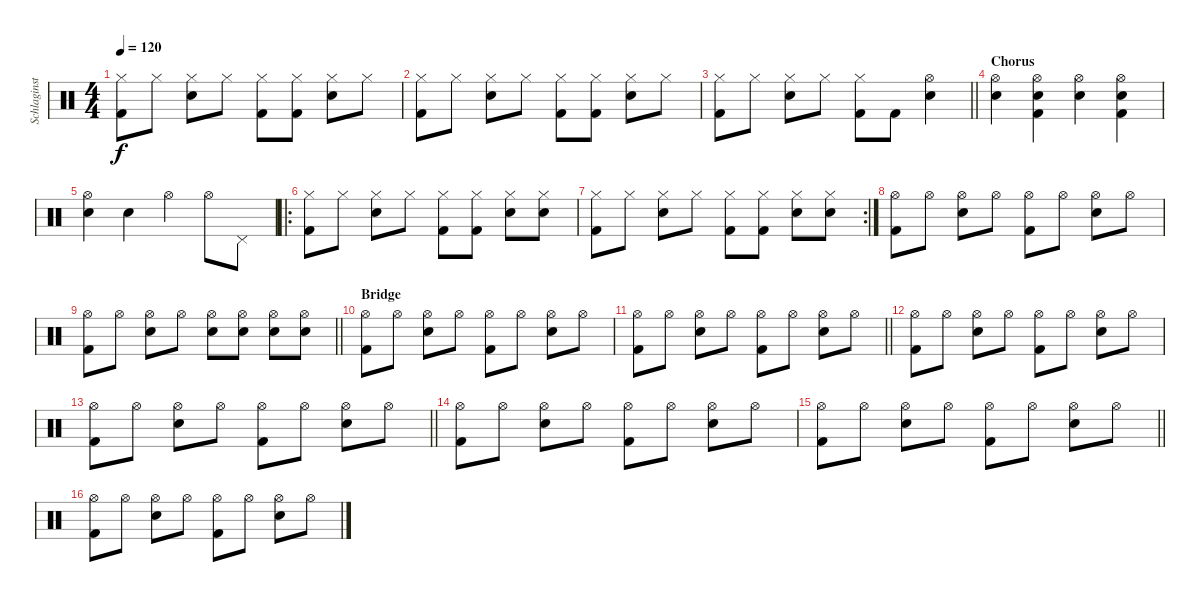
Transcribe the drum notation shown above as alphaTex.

\track ("Schlaginstrumente - Auswahl" "Schlaginst") {instrument percussion}
\staff {score}
\articulation defaults
\ts (4 4)
\tempo 120
\clef neutral
\ks c
("Hi-Hat (closed)" "Kick (hit) 2").8{dy f} "Hi-Hat (closed)".8 ("Hi-Hat (closed)" "Electric Snare (hit)").8 "Hi-Hat (closed)".8 ("Hi-Hat (closed)" "Kick (hit) 2").8 ("Hi-Hat (closed)" "Kick (hit) 2").8 ("Hi-Hat (closed)" "Electric Snare (hit)").8 "Hi-Hat (closed)".8 |
("Hi-Hat (closed)" "Kick (hit) 2").8 "Hi-Hat (closed)".8 ("Hi-Hat (closed)" "Electric Snare (hit)").8 "Hi-Hat (closed)".8 ("Hi-Hat (closed)" "Kick (hit) 2").8 ("Hi-Hat (closed)" "Kick (hit) 2").8 ("Hi-Hat (closed)" "Electric Snare (hit)").8 "Hi-Hat (closed)".8 |
\barLineRight lightlight
("Hi-Hat (closed)" "Kick (hit) 2").8 "Hi-Hat (closed)".8 ("Hi-Hat (closed)" "Electric Snare (hit)").8 "Hi-Hat (closed)".8 ("Hi-Hat (closed)" "Kick (hit) 2").8 "Kick (hit) 2".8 ("Hi-Hat (open)" "Electric Snare (hit)").4 |
\section ("" "Chorus")
("Hi-Hat (open)" "Electric Snare (hit)").4 ("Hi-Hat (open)" "Electric Snare (hit)" "Kick (hit) 2").4 ("Hi-Hat (open)" "Electric Snare (hit)").4 ("Hi-Hat (open)" "Electric Snare (hit)" "Kick (hit) 2").4 |
("Hi-Hat (open)" "Electric Snare (hit)").4 "Electric Snare (hit)".4 "Hi-Hat (open)".4 "Hi-Hat (open)".8 "Pedal Hi-Hat (hit)".8 |
\ro
("Hi-Hat (closed)" "Kick (hit) 2").8 "Hi-Hat (closed)".8 ("Hi-Hat (closed)" "Electric Snare (hit)").8 "Hi-Hat (closed)".8 ("Hi-Hat (closed)" "Kick (hit) 2").8 ("Hi-Hat (closed)" "Kick (hit) 2").8 ("Hi-Hat (closed)" "Electric Snare (hit)").8 ("Hi-Hat (closed)" "Electric Snare (hit)").8 |
\rc 2
("Hi-Hat (closed)" "Kick (hit) 2").8 "Hi-Hat (closed)".8 ("Hi-Hat (closed)" "Electric Snare (hit)").8 "Hi-Hat (closed)".8 ("Hi-Hat (closed)" "Kick (hit) 2").8 ("Hi-Hat (closed)" "Kick (hit) 2").8 ("Hi-Hat (closed)" "Electric Snare (hit)").8 ("Hi-Hat (closed)" "Electric Snare (hit)").8 |
("Hi-Hat (open)" "Kick (hit) 2").8 "Hi-Hat (open)".8 ("Hi-Hat (open)" "Electric Snare (hit)").8 "Hi-Hat (open)".8 ("Hi-Hat (open)" "Kick (hit) 2").8 "Hi-Hat (open)".8 ("Hi-Hat (open)" "Electric Snare (hit)").8 "Hi-Hat (open)".8 |
\barLineRight lightlight
("Hi-Hat (open)" "Kick (hit) 2").8 "Hi-Hat (open)".8 ("Hi-Hat (open)" "Electric Snare (hit)").8 "Hi-Hat (open)".8 ("Hi-Hat (open)" "Electric Snare (hit)").8 ("Hi-Hat (open)" "Electric Snare (hit)").8 ("Hi-Hat (open)" "Electric Snare (hit)").8 ("Hi-Hat (open)" "Electric Snare (hit)").8 |
\section ("" "Bridge")
("Hi-Hat (open)" "Kick (hit) 2").8 "Hi-Hat (open)".8 ("Hi-Hat (open)" "Electric Snare (hit)").8 "Hi-Hat (open)".8 ("Hi-Hat (open)" "Kick (hit) 2").8 "Hi-Hat (open)".8 ("Hi-Hat (open)" "Electric Snare (hit)").8 "Hi-Hat (open)".8 |
\barLineRight lightlight
("Hi-Hat (open)" "Kick (hit) 2").8 "Hi-Hat (open)".8 ("Hi-Hat (open)" "Electric Snare (hit)").8 "Hi-Hat (open)".8 ("Hi-Hat (open)" "Kick (hit) 2").8 "Hi-Hat (open)".8 ("Hi-Hat (open)" "Electric Snare (hit)").8 "Hi-Hat (open)".8 |
("Hi-Hat (open)" "Kick (hit) 2").8 "Hi-Hat (open)".8 ("Hi-Hat (open)" "Electric Snare (hit)").8 "Hi-Hat (open)".8 ("Hi-Hat (open)" "Kick (hit) 2").8 "Hi-Hat (open)".8 ("Hi-Hat (open)" "Electric Snare (hit)").8 "Hi-Hat (open)".8 |
\barLineRight lightlight
("Hi-Hat (open)" "Kick (hit) 2").8 "Hi-Hat (open)".8 ("Hi-Hat (open)" "Electric Snare (hit)").8 "Hi-Hat (open)".8 ("Hi-Hat (open)" "Kick (hit) 2").8 "Hi-Hat (open)".8 ("Hi-Hat (open)" "Electric Snare (hit)").8 "Hi-Hat (open)".8 |
("Hi-Hat (open)" "Kick (hit) 2").8 "Hi-Hat (open)".8 ("Hi-Hat (open)" "Electric Snare (hit)").8 "Hi-Hat (open)".8 ("Hi-Hat (open)" "Kick (hit) 2").8 "Hi-Hat (open)".8 ("Hi-Hat (open)" "Electric Snare (hit)").8 "Hi-Hat (open)".8 |
\barLineRight lightlight
("Hi-Hat (open)" "Kick (hit) 2").8 "Hi-Hat (open)".8 ("Hi-Hat (open)" "Electric Snare (hit)").8 "Hi-Hat (open)".8 ("Hi-Hat (open)" "Kick (hit) 2").8 "Hi-Hat (open)".8 ("Hi-Hat (open)" "Electric Snare (hit)").8 "Hi-Hat (open)".8 |
("Hi-Hat (open)" "Kick (hit) 2").8 "Hi-Hat (open)".8 ("Hi-Hat (open)" "Electric Snare (hit)").8 "Hi-Hat (open)".8 ("Hi-Hat (open)" "Kick (hit) 2").8 "Hi-Hat (open)".8 ("Hi-Hat (open)" "Electric Snare (hit)").8 "Hi-Hat (open)".8
